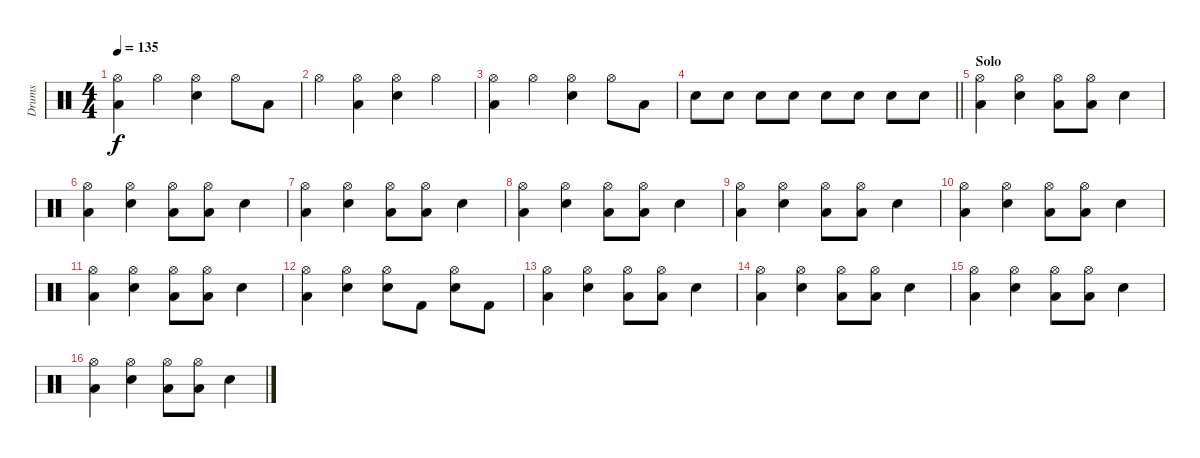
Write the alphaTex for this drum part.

\track ("Drums" "Drums") {instrument percussion}
\staff {score}
\articulation defaults
\ts (4 4)
\tempo 135
\clef neutral
\ks c
("Hi-Hat (open)" "Low Tom (hit)").4{dy f} "Hi-Hat (open)".4 ("Hi-Hat (open)" "Electric Snare (hit)").4 "Hi-Hat (open)".8 "Low Tom (hit)".8 |
"Hi-Hat (open)".4 ("Hi-Hat (open)" "Low Tom (hit)").4 ("Hi-Hat (open)" "Electric Snare (hit)").4 "Hi-Hat (open)".4 |
("Hi-Hat (open)" "Low Tom (hit)").4 "Hi-Hat (open)".4 ("Hi-Hat (open)" "Electric Snare (hit)").4 "Hi-Hat (open)".8 "Low Tom (hit)".8 |
\barLineRight lightlight "Electric Snare (hit)".8 "Electric Snare (hit)".8 "Electric Snare (hit)".8 "Electric Snare (hit)".8 "Electric Snare (hit)".8 "Electric Snare (hit)".8 "Electric Snare (hit)".8 "Electric Snare (hit)".8
|
\section ("" "Solo")
("Hi-Hat (open)" "Low Tom (hit)").4 ("Hi-Hat (open)" "Electric Snare (hit)").4 ("Hi-Hat (open)" "Low Tom (hit)").8 ("Hi-Hat (open)" "Low Tom (hit)").8 "Electric Snare (hit)".4 |
("Hi-Hat (open)" "Low Tom (hit)").4 ("Hi-Hat (open)" "Electric Snare (hit)").4 ("Hi-Hat (open)" "Low Tom (hit)").8 ("Hi-Hat (open)" "Low Tom (hit)").8 "Electric Snare (hit)".4 |
("Hi-Hat (open)" "Low Tom (hit)").4 ("Hi-Hat (open)" "Electric Snare (hit)").4 ("Hi-Hat (open)" "Low Tom (hit)").8 ("Hi-Hat (open)" "Low Tom (hit)").8 "Electric Snare (hit)".4 |
("Hi-Hat (open)" "Low Tom (hit)").4 ("Hi-Hat (open)" "Electric Snare (hit)").4 ("Hi-Hat (open)" "Low Tom (hit)").8 ("Hi-Hat (open)" "Low Tom (hit)").8 "Electric Snare (hit)".4 |
("Hi-Hat (open)" "Low Tom (hit)").4 ("Hi-Hat (open)" "Electric Snare (hit)").4 ("Hi-Hat (open)" "Low Tom (hit)").8 ("Hi-Hat (open)" "Low Tom (hit)").8 "Electric Snare (hit)".4 |
("Hi-Hat (open)" "Low Tom (hit)").4 ("Hi-Hat (open)" "Electric Snare (hit)").4 ("Hi-Hat (open)" "Low Tom (hit)").8 ("Hi-Hat (open)" "Low Tom (hit)").8 "Electric Snare (hit)".4 |
("Hi-Hat (open)" "Low Tom (hit)").4 ("Hi-Hat (open)" "Electric Snare (hit)").4 ("Hi-Hat (open)" "Low Tom (hit)").8 ("Hi-Hat (open)" "Low Tom (hit)").8 "Electric Snare (hit)".4 |
("Hi-Hat (open)" "Low Tom (hit)").4 ("Hi-Hat (open)" "Electric Snare (hit)").4 ("Hi-Hat (open)" "Electric Snare (hit)").8 "Kick (hit) 2".8 ("Hi-Hat (open)" "Electric Snare (hit)").8 "Kick (hit) 2".8 |
("Hi-Hat (open)" "Low Tom (hit)").4 ("Hi-Hat (open)" "Electric Snare (hit)").4 ("Hi-Hat (open)" "Low Tom (hit)").8 ("Hi-Hat (open)" "Low Tom (hit)").8 "Electric Snare (hit)".4 |
("Hi-Hat (open)" "Low Tom (hit)").4 ("Hi-Hat (open)" "Electric Snare (hit)").4 ("Hi-Hat (open)" "Low Tom (hit)").8 ("Hi-Hat (open)" "Low Tom (hit)").8 "Electric Snare (hit)".4 |
("Hi-Hat (open)" "Low Tom (hit)").4 ("Hi-Hat (open)" "Electric Snare (hit)").4 ("Hi-Hat (open)" "Low Tom (hit)").8 ("Hi-Hat (open)" "Low Tom (hit)").8 "Electric Snare (hit)".4 |
("Hi-Hat (open)" "Low Tom (hit)").4 ("Hi-Hat (open)" "Electric Snare (hit)").4 ("Hi-Hat (open)" "Low Tom (hit)").8 ("Hi-Hat (open)" "Low Tom (hit)").8 "Electric Snare (hit)".4
